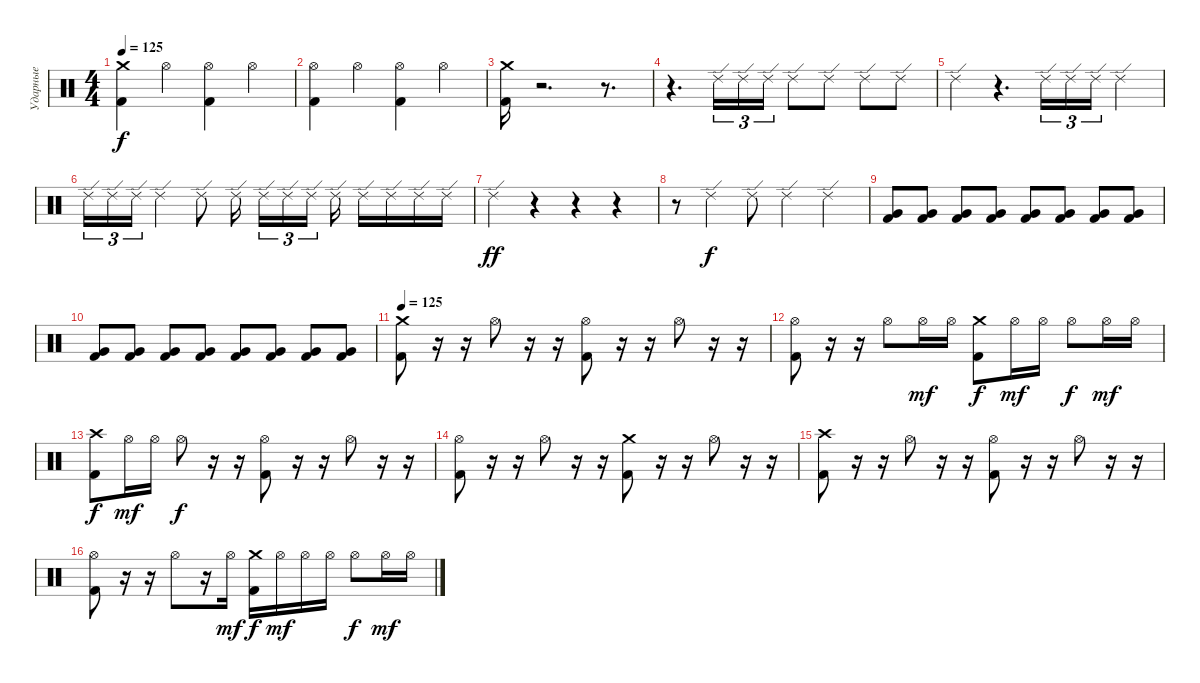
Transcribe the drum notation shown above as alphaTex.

\track ("Ударные" "Ударные") {instrument percussion}
\staff {score}
\articulation defaults
\ts (4 4)
\tempo 125
\clef neutral
\ks c
("Crash medium (hit)" "Kick (hit) 2").4{dy f} "Hi-Hat (open)".4 ("Hi-Hat (open)" "Kick (hit) 2").4 "Hi-Hat (open)".4 |
("Hi-Hat (open)" "Kick (hit) 2").4 "Hi-Hat (open)".4 ("Hi-Hat (open)" "Kick (hit) 2").4 "Hi-Hat (open)".4 |
("Crash medium (hit)" "Kick (hit) 2").16 r.2{d} r.8{d} |
r.4{d} "Ride (edge) 2".16{tu (3 2)} "Ride (edge) 2".16{tu (3 2)} "Ride (edge) 2".16{tu (3 2)} "Ride (edge) 2".8 "Ride (edge) 2".8 "Ride (edge) 2".8 "Ride (edge) 2".8 |
"Ride (edge) 2".4 r.4{d} "Ride (edge) 2".16{tu (3 2)} "Ride (edge) 2".16{tu (3 2)} "Ride (edge) 2".16{tu (3 2)} "Ride (edge) 2".4 |
"Ride (edge) 2".16{tu (3 2)} "Ride (edge) 2".16{tu (3 2)} "Ride (edge) 2".16{tu (3 2)} "Ride (edge) 2".4 "Ride (edge) 2".8 "Ride (edge) 2".16 "Ride (edge) 2".16{tu (3 2)} "Ride (edge) 2".16{tu (3 2)} "Ride (edge) 2".16{tu (3 2)} "Ride (edge) 2".16 "Ride (edge) 2".16 "Ride (edge) 2".16 "Ride (edge) 2".16 "Ride (edge) 2".16 |
"Ride (edge) 2".4{dy ff} r.4 r.4 r.4 |
r.8 "Ride (edge) 2".4{dy f} "Ride (edge) 2".8 "Ride (edge) 2".4 "Ride (edge) 2".4 |
("Very Low Tom (hit)" "Kick (hit) 2").8 ("Very Low Tom (hit)" "Kick (hit) 2").8 ("Very Low Tom (hit)" "Kick (hit) 2").8 ("Very Low Tom (hit)" "Kick (hit) 2").8 ("Very Low Tom (hit)" "Kick (hit) 2").8 ("Very Low Tom (hit)" "Kick (hit) 2").8 ("Very Low Tom (hit)" "Kick (hit) 2").8 ("Very Low Tom (hit)" "Kick (hit) 2").8 |
("Very Low Tom (hit)" "Kick (hit) 2").8 ("Very Low Tom (hit)" "Kick (hit) 2").8 ("Very Low Tom (hit)" "Kick (hit) 2").8 ("Very Low Tom (hit)" "Kick (hit) 2").8 ("Very Low Tom (hit)" "Kick (hit) 2").8 ("Very Low Tom (hit)" "Kick (hit) 2").8 ("Very Low Tom (hit)" "Kick (hit) 2").8 ("Very Low Tom (hit)" "Kick (hit) 2").8 |
\tempo 125
("Crash medium (hit)" "Kick (hit) 2").8 r.16 r.16 "Hi-Hat (open)".8 r.16 r.16 ("Hi-Hat (open)" "Kick (hit) 2").8 r.16 r.16 "Hi-Hat (open)".8 r.16 r.16 |
("Hi-Hat (open)" "Kick (hit) 2").8 r.16 r.16 "Hi-Hat (open)".8 "Hi-Hat (open)".16{dy mf} "Hi-Hat (open)".16 ("Crash medium (hit)" "Kick (hit) 2").8{dy f} "Hi-Hat (open)".16{dy mf} "Hi-Hat (open)".16 "Hi-Hat (open)".8{dy f} "Hi-Hat (open)".16{dy mf} "Hi-Hat (open)".16 |
("Crash high (hit)" "Kick (hit) 2").8{dy f} "Hi-Hat (open)".16{dy mf} "Hi-Hat (open)".16 "Hi-Hat (open)".8{dy f} r.16 r.16 ("Hi-Hat (open)" "Kick (hit) 2").8 r.16 r.16 "Hi-Hat (open)".8 r.16 r.16 |
("Hi-Hat (open)" "Kick (hit) 2").8 r.16 r.16 "Hi-Hat (open)".8 r.16 r.16 ("Crash medium (hit)" "Kick (hit) 2").8 r.16 r.16 "Hi-Hat (open)".8 r.16 r.16 |
("Crash high (hit)" "Kick (hit) 2").8 r.16 r.16 "Hi-Hat (open)".8 r.16 r.16 ("Hi-Hat (open)" "Kick (hit) 2").8 r.16 r.16 "Hi-Hat (open)".8 r.16 r.16 |
("Hi-Hat (open)" "Kick (hit) 2").8 r.16 r.16 "Hi-Hat (open)".8 r.16 "Hi-Hat (open)".16{dy mf} ("Crash medium (hit)" "Kick (hit) 2").16{dy f} "Hi-Hat (open)".16{dy mf} "Hi-Hat (open)".16 "Hi-Hat (open)".16 "Hi-Hat (open)".8{dy f} "Hi-Hat (open)".16{dy mf} "Hi-Hat (open)".16
